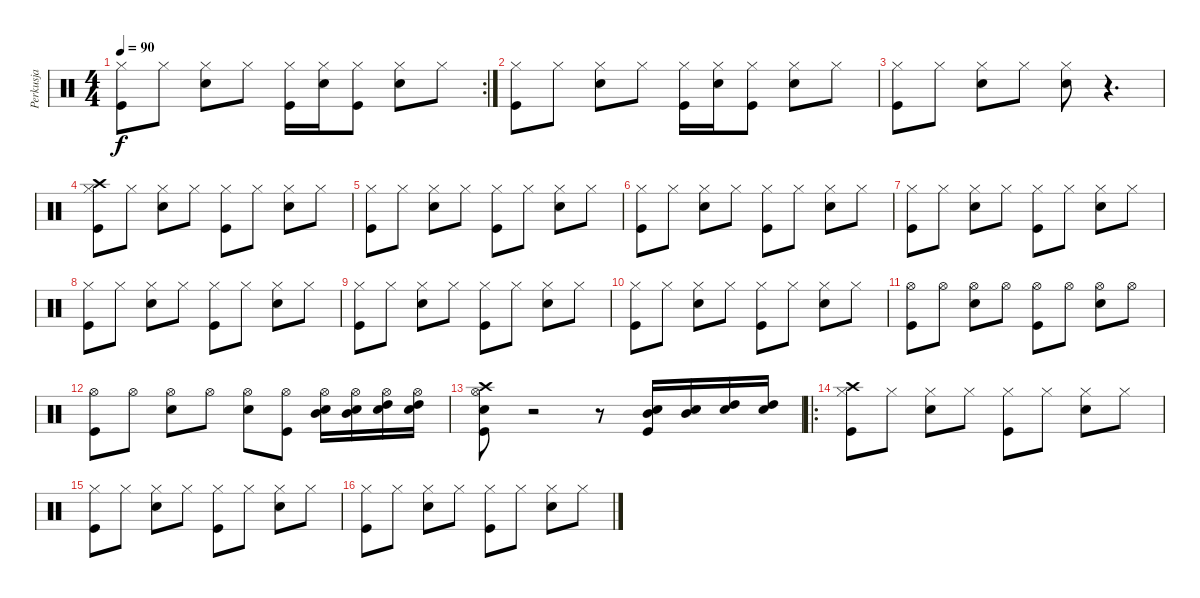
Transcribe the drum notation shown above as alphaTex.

\track ("Perkusja" "Perkusja") {instrument percussion}
\staff {score}
\articulation defaults
\rc 2
\ts (4 4)
\tempo 90
\clef neutral
\ks c
("Hi-Hat (closed)" "Kick (hit)").8{dy f} "Hi-Hat (closed)".8 ("Hi-Hat (closed)" "Electric Snare (hit)").8 "Hi-Hat (closed)".8 ("Hi-Hat (closed)" "Kick (hit)").16 ("Hi-Hat (closed)" "Electric Snare (hit)").16 ("Hi-Hat (closed)" "Kick (hit)").8 ("Hi-Hat (closed)" "Electric Snare (hit)").8 "Hi-Hat (closed)".8 |
("Hi-Hat (closed)" "Kick (hit)").8 "Hi-Hat (closed)".8 ("Hi-Hat (closed)" "Electric Snare (hit)").8 "Hi-Hat (closed)".8 ("Hi-Hat (closed)" "Kick (hit)").16 ("Hi-Hat (closed)" "Electric Snare (hit)").16 ("Hi-Hat (closed)" "Kick (hit)").8 ("Hi-Hat (closed)" "Electric Snare (hit)").8 "Hi-Hat (closed)".8 |
("Hi-Hat (closed)" "Kick (hit)").8 "Hi-Hat (closed)".8 ("Hi-Hat (closed)" "Electric Snare (hit)").8 "Hi-Hat (closed)".8 ("Hi-Hat (closed)" "Electric Snare (hit)").8 r.4{d} |
("Hi-Hat (closed)" "Crash high (hit)" "Kick (hit)").8 "Hi-Hat (closed)".8 ("Hi-Hat (closed)" "Electric Snare (hit)").8 "Hi-Hat (closed)".8 ("Hi-Hat (closed)" "Kick (hit)").8 "Hi-Hat (closed)".8 ("Hi-Hat (closed)" "Electric Snare (hit)").8 "Hi-Hat (closed)".8 |
("Hi-Hat (closed)" "Kick (hit)").8 "Hi-Hat (closed)".8 ("Hi-Hat (closed)" "Electric Snare (hit)").8 "Hi-Hat (closed)".8 ("Hi-Hat (closed)" "Kick (hit)").8 "Hi-Hat (closed)".8 ("Hi-Hat (closed)" "Electric Snare (hit)").8 "Hi-Hat (closed)".8 |
("Hi-Hat (closed)" "Kick (hit)").8 "Hi-Hat (closed)".8 ("Hi-Hat (closed)" "Electric Snare (hit)").8 "Hi-Hat (closed)".8 ("Hi-Hat (closed)" "Kick (hit)").8 "Hi-Hat (closed)".8 ("Hi-Hat (closed)" "Electric Snare (hit)").8 "Hi-Hat (closed)".8 |
("Hi-Hat (closed)" "Kick (hit)").8 "Hi-Hat (closed)".8 ("Hi-Hat (closed)" "Electric Snare (hit)").8 "Hi-Hat (closed)".8 ("Hi-Hat (closed)" "Kick (hit)").8 "Hi-Hat (closed)".8 ("Hi-Hat (closed)" "Electric Snare (hit)").8 "Hi-Hat (closed)".8 |
("Hi-Hat (closed)" "Kick (hit)").8 "Hi-Hat (closed)".8 ("Hi-Hat (closed)" "Electric Snare (hit)").8 "Hi-Hat (closed)".8 ("Hi-Hat (closed)" "Kick (hit)").8 "Hi-Hat (closed)".8 ("Hi-Hat (closed)" "Electric Snare (hit)").8 "Hi-Hat (closed)".8 |
("Hi-Hat (closed)" "Kick (hit)").8 "Hi-Hat (closed)".8 ("Hi-Hat (closed)" "Electric Snare (hit)").8 "Hi-Hat (closed)".8 ("Hi-Hat (closed)" "Kick (hit)").8 "Hi-Hat (closed)".8 ("Hi-Hat (closed)" "Electric Snare (hit)").8 "Hi-Hat (closed)".8 |
("Hi-Hat (closed)" "Kick (hit)").8 "Hi-Hat (closed)".8 ("Hi-Hat (closed)" "Electric Snare (hit)").8 "Hi-Hat (closed)".8 ("Hi-Hat (closed)" "Kick (hit)").8 "Hi-Hat (closed)".8 ("Hi-Hat (closed)" "Electric Snare (hit)").8 "Hi-Hat (closed)".8 |
("Hi-Hat (open)" "Kick (hit)").8 "Hi-Hat (open)".8 ("Hi-Hat (open)" "Electric Snare (hit)").8 "Hi-Hat (open)".8 ("Hi-Hat (open)" "Kick (hit)").8 "Hi-Hat (open)".8 ("Hi-Hat (open)" "Electric Snare (hit)").8 "Hi-Hat (open)".8 |
("Hi-Hat (open)" "Kick (hit)").8 "Hi-Hat (open)".8 ("Hi-Hat (open)" "Electric Snare (hit)").8 "Hi-Hat (open)".8 ("Hi-Hat (open)" "Electric Snare (hit)").8 ("Hi-Hat (open)" "Kick (hit)").8 ("Hi-Hat (open)" "Mid Tom (hit)" "Electric Snare (hit)").16 ("Hi-Hat (open)" "Mid Tom (hit)" "Electric Snare (hit)").16 ("Hi-Hat (open)" "High Tom (hit)" "Electric Snare (hit)").16 ("Hi-Hat (open)" "High Tom (hit)" "Electric Snare (hit)").16 |
("Hi-Hat (open)" "Crash high (hit)" "Electric Snare (hit)" "Kick (hit)").8 r.2 r.8 ("Mid Tom (hit)" "Electric Snare (hit)" "Kick (hit)").16 ("Mid Tom (hit)" "Electric Snare (hit)").16 ("High Tom (hit)" "Electric Snare (hit)").16 ("High Tom (hit)" "Electric Snare (hit)").16 |
\ro
("Hi-Hat (closed)" "Crash high (hit)" "Kick (hit)").8 "Hi-Hat (closed)".8 ("Hi-Hat (closed)" "Electric Snare (hit)").8 "Hi-Hat (closed)".8 ("Hi-Hat (closed)" "Kick (hit)").8 "Hi-Hat (closed)".8 ("Hi-Hat (closed)" "Electric Snare (hit)").8 "Hi-Hat (closed)".8 |
("Hi-Hat (closed)" "Kick (hit)").8 "Hi-Hat (closed)".8 ("Hi-Hat (closed)" "Electric Snare (hit)").8 "Hi-Hat (closed)".8 ("Hi-Hat (closed)" "Kick (hit)").8 "Hi-Hat (closed)".8 ("Hi-Hat (closed)" "Electric Snare (hit)").8 "Hi-Hat (closed)".8 |
("Hi-Hat (closed)" "Kick (hit)").8 "Hi-Hat (closed)".8 ("Hi-Hat (closed)" "Electric Snare (hit)").8 "Hi-Hat (closed)".8 ("Hi-Hat (closed)" "Kick (hit)").8 "Hi-Hat (closed)".8 ("Hi-Hat (closed)" "Electric Snare (hit)").8 "Hi-Hat (closed)".8
